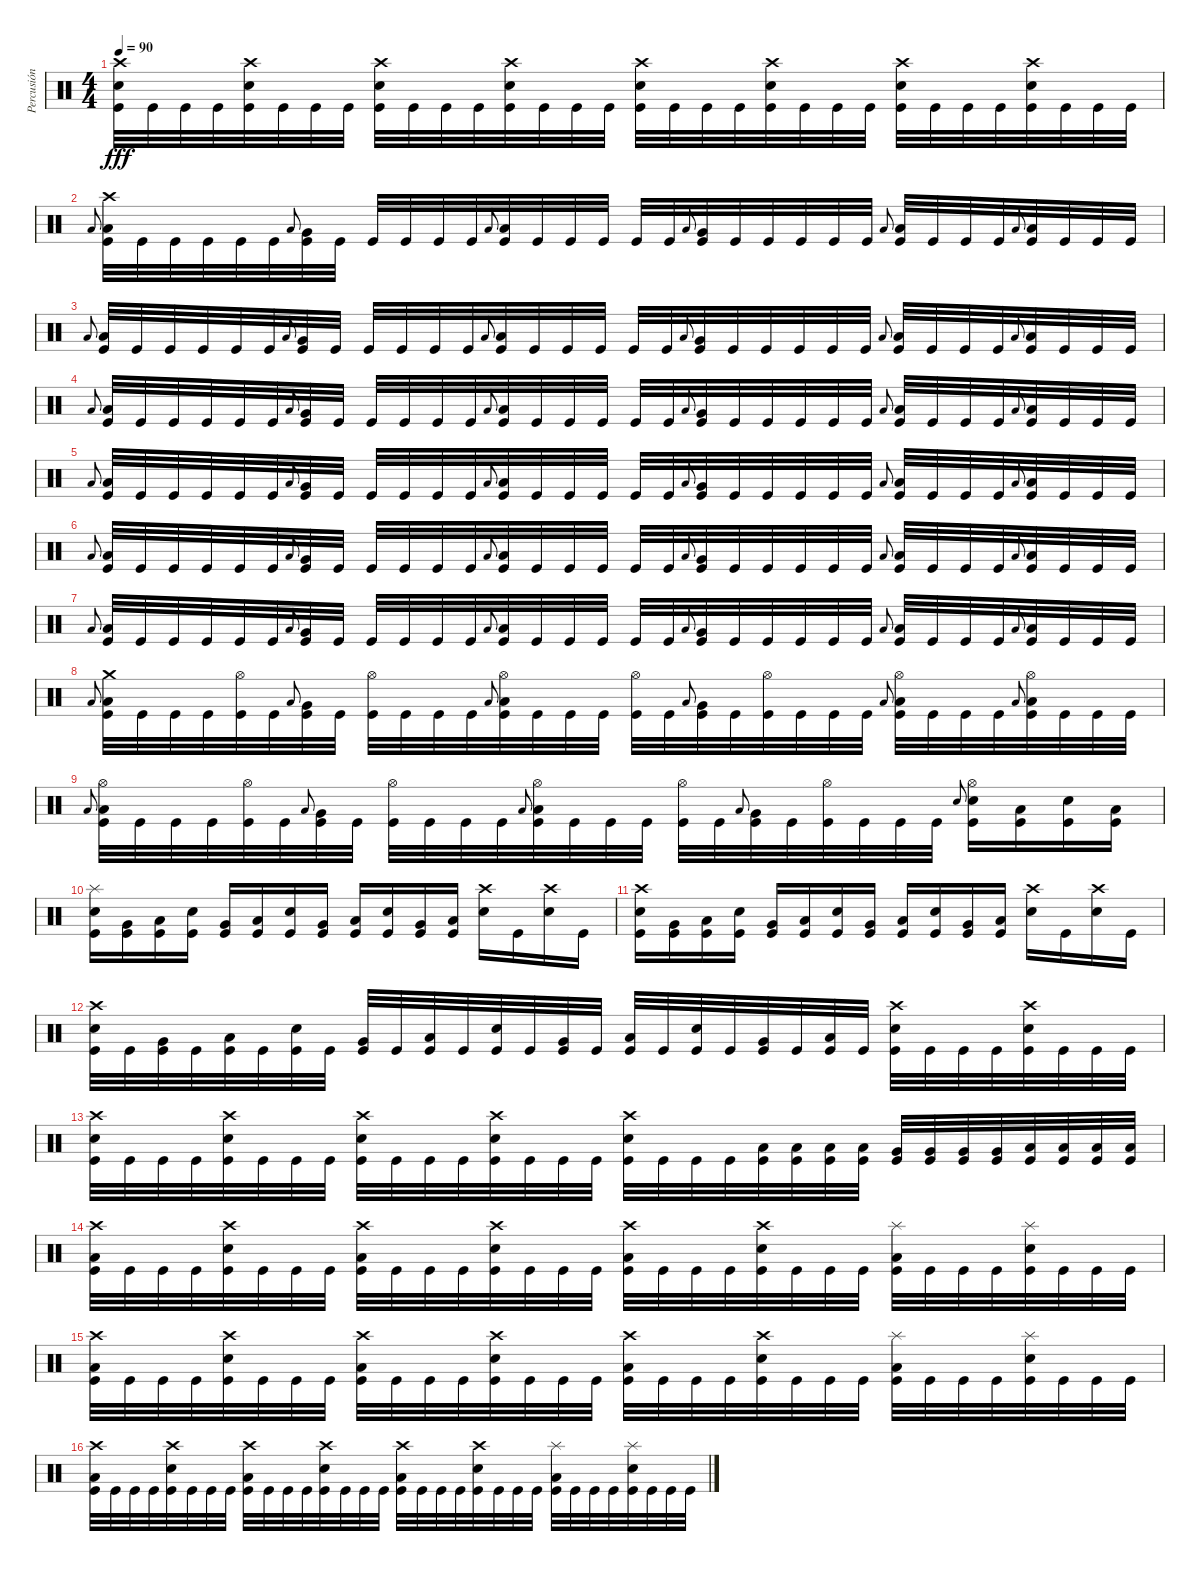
\track ("Percusión" "Percusión") {instrument percussion}
\staff {score}
\articulation defaults
\ts (4 4)
\tempo 90
\clef neutral
\ks c
("Crash high (hit)" "Snare (hit) 2" "Kick (hit)").32{dy fff} "Kick (hit)".32 "Kick (hit)".32 "Kick (hit)".32 ("Crash high (hit)" "Snare (hit) 2" "Kick (hit)").32 "Kick (hit)".32 "Kick (hit)".32 "Kick (hit)".32 ("Crash high (hit)" "Snare (hit) 2" "Kick (hit)").32 "Kick (hit)".32 "Kick (hit)".32 "Kick (hit)".32 ("Crash high (hit)" "Snare (hit) 2" "Kick (hit)").32 "Kick (hit)".32 "Kick (hit)".32 "Kick (hit)".32 ("Crash high (hit)" "Snare (hit) 2" "Kick (hit)").32 "Kick (hit)".32 "Kick (hit)".32 "Kick (hit)".32 ("Crash high (hit)" "Snare (hit) 2" "Kick (hit)").32 "Kick (hit)".32 "Kick (hit)".32 "Kick (hit)".32 ("Crash high (hit)" "Snare (hit) 2" "Kick (hit)").32 "Kick (hit)".32 "Kick (hit)".32 "Kick (hit)".32 ("Crash high (hit)" "Snare (hit) 2" "Kick (hit)").32 "Kick (hit)".32 "Kick (hit)".32 "Kick (hit)".32 |
"Low Floor Tom (hit)".8{gr onbeat} ("Crash high (hit)" "Low Tom (hit)" "Kick (hit)").32 "Kick (hit)".32 "Kick (hit)".32 "Kick (hit)".32 "Kick (hit)".32 "Kick (hit)".32 "Low Floor Tom (hit)".8{gr onbeat} ("Very Low Tom (hit)" "Kick (hit)").32 "Kick (hit)".32 "Kick (hit)".32 "Kick (hit)".32 "Kick (hit)".32 "Kick (hit)".32 "Low Floor Tom (hit)".8{gr onbeat} ("Low Tom (hit)" "Kick (hit)").32 "Kick (hit)".32 "Kick (hit)".32 "Kick (hit)".32 "Kick (hit)".32 "Kick (hit)".32 "Low Floor Tom (hit)".8{gr onbeat} ("Very Low Tom (hit)" "Kick (hit)").32 "Kick (hit)".32 "Kick (hit)".32 "Kick (hit)".32 "Kick (hit)".32 "Kick (hit)".32 "Low Floor Tom (hit)".8{gr onbeat} ("Low Floor Tom (hit)" "Kick (hit)").32 "Kick (hit)".32 "Kick (hit)".32 "Kick (hit)".32 "Low Floor Tom (hit)".8{gr onbeat} ("Low Floor Tom (hit)" "Kick (hit)").32 "Kick (hit)".32 "Kick (hit)".32 "Kick (hit)".32 |
"Low Floor Tom (hit)".8{gr onbeat} ("Low Tom (hit)" "Kick (hit)").32 "Kick (hit)".32 "Kick (hit)".32 "Kick (hit)".32 "Kick (hit)".32 "Kick (hit)".32 "Low Floor Tom (hit)".8{gr onbeat} ("Very Low Tom (hit)" "Kick (hit)").32 "Kick (hit)".32 "Kick (hit)".32 "Kick (hit)".32 "Kick (hit)".32 "Kick (hit)".32 "Low Floor Tom (hit)".8{gr onbeat} ("Low Tom (hit)" "Kick (hit)").32 "Kick (hit)".32 "Kick (hit)".32 "Kick (hit)".32 "Kick (hit)".32 "Kick (hit)".32 "Low Floor Tom (hit)".8{gr onbeat} ("Very Low Tom (hit)" "Kick (hit)").32 "Kick (hit)".32 "Kick (hit)".32 "Kick (hit)".32 "Kick (hit)".32 "Kick (hit)".32 "Low Floor Tom (hit)".8{gr onbeat} ("Low Floor Tom (hit)" "Kick (hit)").32 "Kick (hit)".32 "Kick (hit)".32 "Kick (hit)".32 "Low Floor Tom (hit)".8{gr onbeat} ("Low Floor Tom (hit)" "Kick (hit)").32 "Kick (hit)".32 "Kick (hit)".32 "Kick (hit)".32 |
"Low Floor Tom (hit)".8{gr onbeat} ("Low Tom (hit)" "Kick (hit)").32 "Kick (hit)".32 "Kick (hit)".32 "Kick (hit)".32 "Kick (hit)".32 "Kick (hit)".32 "Low Floor Tom (hit)".8{gr onbeat} ("Very Low Tom (hit)" "Kick (hit)").32 "Kick (hit)".32 "Kick (hit)".32 "Kick (hit)".32 "Kick (hit)".32 "Kick (hit)".32 "Low Floor Tom (hit)".8{gr onbeat} ("Low Tom (hit)" "Kick (hit)").32 "Kick (hit)".32 "Kick (hit)".32 "Kick (hit)".32 "Kick (hit)".32 "Kick (hit)".32 "Low Floor Tom (hit)".8{gr onbeat} ("Very Low Tom (hit)" "Kick (hit)").32 "Kick (hit)".32 "Kick (hit)".32 "Kick (hit)".32 "Kick (hit)".32 "Kick (hit)".32 "Low Floor Tom (hit)".8{gr onbeat} ("Low Floor Tom (hit)" "Kick (hit)").32 "Kick (hit)".32 "Kick (hit)".32 "Kick (hit)".32 "Low Floor Tom (hit)".8{gr onbeat} ("Low Floor Tom (hit)" "Kick (hit)").32 "Kick (hit)".32 "Kick (hit)".32 "Kick (hit)".32 |
"Low Floor Tom (hit)".8{gr onbeat} ("Low Tom (hit)" "Kick (hit)").32 "Kick (hit)".32 "Kick (hit)".32 "Kick (hit)".32 "Kick (hit)".32 "Kick (hit)".32 "Low Floor Tom (hit)".8{gr onbeat} ("Very Low Tom (hit)" "Kick (hit)").32 "Kick (hit)".32 "Kick (hit)".32 "Kick (hit)".32 "Kick (hit)".32 "Kick (hit)".32 "Low Floor Tom (hit)".8{gr onbeat} ("Low Tom (hit)" "Kick (hit)").32 "Kick (hit)".32 "Kick (hit)".32 "Kick (hit)".32 "Kick (hit)".32 "Kick (hit)".32 "Low Floor Tom (hit)".8{gr onbeat} ("Very Low Tom (hit)" "Kick (hit)").32 "Kick (hit)".32 "Kick (hit)".32 "Kick (hit)".32 "Kick (hit)".32 "Kick (hit)".32 "Low Floor Tom (hit)".8{gr onbeat} ("Low Floor Tom (hit)" "Kick (hit)").32 "Kick (hit)".32 "Kick (hit)".32 "Kick (hit)".32 "Low Floor Tom (hit)".8{gr onbeat} ("Low Floor Tom (hit)" "Kick (hit)").32 "Kick (hit)".32 "Kick (hit)".32 "Kick (hit)".32 |
"Low Floor Tom (hit)".8{gr onbeat} ("Low Tom (hit)" "Kick (hit)").32 "Kick (hit)".32 "Kick (hit)".32 "Kick (hit)".32 "Kick (hit)".32 "Kick (hit)".32 "Low Floor Tom (hit)".8{gr onbeat} ("Very Low Tom (hit)" "Kick (hit)").32 "Kick (hit)".32 "Kick (hit)".32 "Kick (hit)".32 "Kick (hit)".32 "Kick (hit)".32 "Low Floor Tom (hit)".8{gr onbeat} ("Low Tom (hit)" "Kick (hit)").32 "Kick (hit)".32 "Kick (hit)".32 "Kick (hit)".32 "Kick (hit)".32 "Kick (hit)".32 "Low Floor Tom (hit)".8{gr onbeat} ("Very Low Tom (hit)" "Kick (hit)").32 "Kick (hit)".32 "Kick (hit)".32 "Kick (hit)".32 "Kick (hit)".32 "Kick (hit)".32 "Low Floor Tom (hit)".8{gr onbeat} ("Low Floor Tom (hit)" "Kick (hit)").32 "Kick (hit)".32 "Kick (hit)".32 "Kick (hit)".32 "Low Floor Tom (hit)".8{gr onbeat} ("Low Floor Tom (hit)" "Kick (hit)").32 "Kick (hit)".32 "Kick (hit)".32 "Kick (hit)".32 |
"Low Floor Tom (hit)".8{gr onbeat} ("Low Tom (hit)" "Kick (hit)").32 "Kick (hit)".32 "Kick (hit)".32 "Kick (hit)".32 "Kick (hit)".32 "Kick (hit)".32 "Low Floor Tom (hit)".8{gr onbeat} ("Very Low Tom (hit)" "Kick (hit)").32 "Kick (hit)".32 "Kick (hit)".32 "Kick (hit)".32 "Kick (hit)".32 "Kick (hit)".32 "Low Floor Tom (hit)".8{gr onbeat} ("Low Tom (hit)" "Kick (hit)").32 "Kick (hit)".32 "Kick (hit)".32 "Kick (hit)".32 "Kick (hit)".32 "Kick (hit)".32 "Low Floor Tom (hit)".8{gr onbeat} ("Very Low Tom (hit)" "Kick (hit)").32 "Kick (hit)".32 "Kick (hit)".32 "Kick (hit)".32 "Kick (hit)".32 "Kick (hit)".32 "Low Floor Tom (hit)".8{gr onbeat} ("Low Floor Tom (hit)" "Kick (hit)").32 "Kick (hit)".32 "Kick (hit)".32 "Kick (hit)".32 "Low Floor Tom (hit)".8{gr onbeat} ("Low Floor Tom (hit)" "Kick (hit)").32 "Kick (hit)".32 "Kick (hit)".32 "Kick (hit)".32 |
"Low Floor Tom (hit)".8{gr onbeat} ("Crash medium (hit)" "Low Tom (hit)" "Kick (hit)").32 "Kick (hit)".32 "Kick (hit)".32 "Kick (hit)".32 ("Hi-Hat (open)" "Kick (hit)").32 "Kick (hit)".32 "Low Floor Tom (hit)".8{gr onbeat} ("Very Low Tom (hit)" "Kick (hit)").32 "Kick (hit)".32 ("Hi-Hat (open)" "Kick (hit)").32 "Kick (hit)".32 "Kick (hit)".32 "Kick (hit)".32 "Low Floor Tom (hit)".8{gr onbeat} ("Hi-Hat (open)" "Low Tom (hit)" "Kick (hit)").32 "Kick (hit)".32 "Kick (hit)".32 "Kick (hit)".32 ("Hi-Hat (open)" "Kick (hit)").32 "Kick (hit)".32 "Low Floor Tom (hit)".8{gr onbeat} ("Very Low Tom (hit)" "Kick (hit)").32 "Kick (hit)".32 ("Hi-Hat (open)" "Kick (hit)").32 "Kick (hit)".32 "Kick (hit)".32 "Kick (hit)".32 "Low Floor Tom (hit)".8{gr onbeat} ("Hi-Hat (open)" "Low Floor Tom (hit)" "Kick (hit)").32 "Kick (hit)".32 "Kick (hit)".32 "Kick (hit)".32 "Low Floor Tom (hit)".8{gr onbeat} ("Hi-Hat (open)" "Low Floor Tom (hit)" "Kick (hit)").32 "Kick (hit)".32 "Kick (hit)".32 "Kick (hit)".32 |
"Low Floor Tom (hit)".8{gr onbeat} ("Hi-Hat (open)" "Low Tom (hit)" "Kick (hit)").32 "Kick (hit)".32 "Kick (hit)".32 "Kick (hit)".32 ("Hi-Hat (open)" "Kick (hit)").32 "Kick (hit)".32 "Low Floor Tom (hit)".8{gr onbeat} ("Very Low Tom (hit)" "Kick (hit)").32 "Kick (hit)".32 ("Hi-Hat (open)" "Kick (hit)").32 "Kick (hit)".32 "Kick (hit)".32 "Kick (hit)".32 "Low Floor Tom (hit)".8{gr onbeat} ("Hi-Hat (open)" "Low Tom (hit)" "Kick (hit)").32 "Kick (hit)".32 "Kick (hit)".32 "Kick (hit)".32 ("Hi-Hat (open)" "Kick (hit)").32 "Kick (hit)".32 "Low Floor Tom (hit)".8{gr onbeat} ("Very Low Tom (hit)" "Kick (hit)").32 "Kick (hit)".32 ("Hi-Hat (open)" "Kick (hit)").32 "Kick (hit)".32 "Kick (hit)".32 "Kick (hit)".32 "Snare (hit) 2".8{gr onbeat} ("Hi-Hat (open)" "Snare (hit) 2" "Kick (hit)").16 ("Low Floor Tom (hit)" "Kick (hit)").16 ("Snare (hit) 2" "Kick (hit)").16 ("Low Floor Tom (hit)" "Kick (hit)").16 |
("Splash (hit)" "Kick (hit)" "Snare (hit) 2").16 ("Very Low Tom (hit)" "Kick (hit)").16 ("Low Floor Tom (hit)" "Kick (hit)").16 ("Kick (hit)" "Snare (hit) 2").16 ("Very Low Tom (hit)" "Kick (hit)").16 ("Low Floor Tom (hit)" "Kick (hit)").16 ("Kick (hit)" "Snare (hit) 2").16 ("Very Low Tom (hit)" "Kick (hit)").16 ("Low Floor Tom (hit)" "Kick (hit)").16 ("Kick (hit)" "Snare (hit) 2").16 ("Very Low Tom (hit)" "Kick (hit)").16 ("Low Floor Tom (hit)" "Kick (hit)").16 ("Crash high (hit)" "Snare (hit) 2").16 "Kick (hit)".16 ("Crash high (hit)" "Snare (hit) 2").16 "Kick (hit)".16 |
("Crash high (hit)" "Kick (hit)" "Snare (hit) 2").16 ("Very Low Tom (hit)" "Kick (hit)").16 ("Low Floor Tom (hit)" "Kick (hit)").16 ("Kick (hit)" "Snare (hit) 2").16 ("Very Low Tom (hit)" "Kick (hit)").16 ("Low Floor Tom (hit)" "Kick (hit)").16 ("Kick (hit)" "Snare (hit) 2").16 ("Very Low Tom (hit)" "Kick (hit)").16 ("Low Floor Tom (hit)" "Kick (hit)").16 ("Kick (hit)" "Snare (hit) 2").16 ("Very Low Tom (hit)" "Kick (hit)").16 ("Low Floor Tom (hit)" "Kick (hit)").16 ("Crash high (hit)" "Snare (hit) 2").16 "Kick (hit)".16 ("Crash high (hit)" "Snare (hit) 2").16 "Kick (hit)".16 |
("Crash high (hit)" "Kick (hit)" "Snare (hit) 2").32 "Kick (hit)".32 ("Very Low Tom (hit)" "Kick (hit)").32 "Kick (hit)".32 ("Low Floor Tom (hit)" "Kick (hit)").32 "Kick (hit)".32 ("Kick (hit)" "Snare (hit) 2").32 "Kick (hit)".32 ("Very Low Tom (hit)" "Kick (hit)").32 "Kick (hit)".32 ("Low Floor Tom (hit)" "Kick (hit)").32 "Kick (hit)".32 ("Kick (hit)" "Snare (hit) 2").32 "Kick (hit)".32 ("Very Low Tom (hit)" "Kick (hit)").32 "Kick (hit)".32 ("Low Floor Tom (hit)" "Kick (hit)").32 "Kick (hit)".32 ("Kick (hit)" "Snare (hit) 2").32 "Kick (hit)".32 ("Very Low Tom (hit)" "Kick (hit)").32 "Kick (hit)".32 ("Low Floor Tom (hit)" "Kick (hit)").32 "Kick (hit)".32 ("Crash high (hit)" "Snare (hit) 2" "Kick (hit)").32 "Kick (hit)".32 "Kick (hit)".32 "Kick (hit)".32 ("Crash high (hit)" "Snare (hit) 2" "Kick (hit)").32 "Kick (hit)".32 "Kick (hit)".32 "Kick (hit)".32 |
("Crash high (hit)" "Snare (hit) 2" "Kick (hit)").32 "Kick (hit)".32 "Kick (hit)".32 "Kick (hit)".32 ("Crash high (hit)" "Snare (hit) 2" "Kick (hit)").32 "Kick (hit)".32 "Kick (hit)".32 "Kick (hit)".32 ("Crash high (hit)" "Snare (hit) 2" "Kick (hit)").32 "Kick (hit)".32 "Kick (hit)".32 "Kick (hit)".32 ("Crash high (hit)" "Snare (hit) 2" "Kick (hit)").32 "Kick (hit)".32 "Kick (hit)".32 "Kick (hit)".32 ("Crash high (hit)" "Snare (hit) 2" "Kick (hit)").32 "Kick (hit)".32 "Kick (hit)".32 "Kick (hit)".32 ("Low Tom (hit)" "Kick (hit)").32 ("Low Tom (hit)" "Kick (hit)").32 ("Low Tom (hit)" "Kick (hit)").32 ("Low Tom (hit)" "Kick (hit)").32 ("Very Low Tom (hit)" "Kick (hit)").32 ("Very Low Tom (hit)" "Kick (hit)").32 ("Very Low Tom (hit)" "Kick (hit)").32 ("Very Low Tom (hit)" "Kick (hit)").32 ("Low Floor Tom (hit)" "Kick (hit)").32 ("Low Floor Tom (hit)" "Kick (hit)").32 ("Low Floor Tom (hit)" "Kick (hit)").32 ("Low Floor Tom (hit)" "Kick (hit)").32 |
("Crash high (hit)" "Low Floor Tom (hit)" "Kick (hit)").32 "Kick (hit)".32 "Kick (hit)".32 "Kick (hit)".32 ("Crash high (hit)" "Snare (hit) 2" "Kick (hit)").32 "Kick (hit)".32 "Kick (hit)".32 "Kick (hit)".32 ("Crash high (hit)" "Low Floor Tom (hit)" "Kick (hit)").32 "Kick (hit)".32 "Kick (hit)".32 "Kick (hit)".32 ("Crash high (hit)" "Snare (hit) 2" "Kick (hit)").32 "Kick (hit)".32 "Kick (hit)".32 "Kick (hit)".32 ("Crash high (hit)" "Low Floor Tom (hit)" "Kick (hit)").32 "Kick (hit)".32 "Kick (hit)".32 "Kick (hit)".32 ("Crash high (hit)" "Snare (hit) 2" "Kick (hit)").32 "Kick (hit)".32 "Kick (hit)".32 "Kick (hit)".32 ("Splash (hit)" "Low Floor Tom (hit)" "Kick (hit)").32 "Kick (hit)".32 "Kick (hit)".32 "Kick (hit)".32 ("Splash (hit)" "Snare (hit) 2" "Kick (hit)").32 "Kick (hit)".32 "Kick (hit)".32 "Kick (hit)".32 |
("Crash high (hit)" "Low Floor Tom (hit)" "Kick (hit)").32 "Kick (hit)".32 "Kick (hit)".32 "Kick (hit)".32 ("Crash high (hit)" "Snare (hit) 2" "Kick (hit)").32 "Kick (hit)".32 "Kick (hit)".32 "Kick (hit)".32 ("Crash high (hit)" "Low Floor Tom (hit)" "Kick (hit)").32 "Kick (hit)".32 "Kick (hit)".32 "Kick (hit)".32 ("Crash high (hit)" "Snare (hit) 2" "Kick (hit)").32 "Kick (hit)".32 "Kick (hit)".32 "Kick (hit)".32 ("Crash high (hit)" "Low Floor Tom (hit)" "Kick (hit)").32 "Kick (hit)".32 "Kick (hit)".32 "Kick (hit)".32 ("Crash high (hit)" "Snare (hit) 2" "Kick (hit)").32 "Kick (hit)".32 "Kick (hit)".32 "Kick (hit)".32 ("Splash (hit)" "Low Floor Tom (hit)" "Kick (hit)").32 "Kick (hit)".32 "Kick (hit)".32 "Kick (hit)".32 ("Splash (hit)" "Snare (hit) 2" "Kick (hit)").32 "Kick (hit)".32 "Kick (hit)".32 "Kick (hit)".32 |
("Crash high (hit)" "Low Floor Tom (hit)" "Kick (hit)").32 "Kick (hit)".32 "Kick (hit)".32 "Kick (hit)".32 ("Crash high (hit)" "Snare (hit) 2" "Kick (hit)").32 "Kick (hit)".32 "Kick (hit)".32 "Kick (hit)".32 ("Crash high (hit)" "Low Floor Tom (hit)" "Kick (hit)").32 "Kick (hit)".32 "Kick (hit)".32 "Kick (hit)".32 ("Crash high (hit)" "Snare (hit) 2" "Kick (hit)").32 "Kick (hit)".32 "Kick (hit)".32 "Kick (hit)".32 ("Crash high (hit)" "Low Floor Tom (hit)" "Kick (hit)").32 "Kick (hit)".32 "Kick (hit)".32 "Kick (hit)".32 ("Crash high (hit)" "Snare (hit) 2" "Kick (hit)").32 "Kick (hit)".32 "Kick (hit)".32 "Kick (hit)".32 ("Splash (hit)" "Low Floor Tom (hit)" "Kick (hit)").32 "Kick (hit)".32 "Kick (hit)".32 "Kick (hit)".32 ("Splash (hit)" "Snare (hit) 2" "Kick (hit)").32 "Kick (hit)".32 "Kick (hit)".32 "Kick (hit)".32
